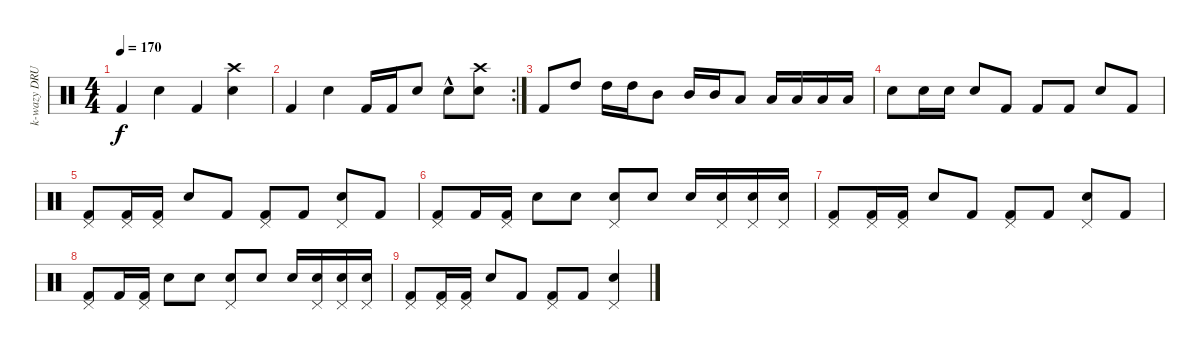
\track ("k-wazy DRUMZ" "k-wazy DRU") {instrument percussion}
\staff {score}
\articulation defaults
\ts (4 4)
\tempo 170
\clef neutral
\ks c "Kick (hit) 2".4{dy f} "Electric Snare (hit)".4 "Kick (hit) 2".4
("Crash high (hit)" "Electric Snare (hit)").4 |
\rc 2 "Kick (hit) 2".4 "Electric Snare (hit)".4 "Kick (hit) 2".16 "Kick (hit) 2".16 "Electric Snare (hit)".8 "Electric Snare (hit)"{hac}.8
("Crash high (hit)" "Electric Snare (hit)").8 |
"Kick (hit) 2".8 "High Tom (hit)".8 "High Tom (hit)".16 "High Tom (hit)".16 "Mid Tom (hit)".8 "Mid Tom (hit)".16 "Mid Tom (hit)".16 "Low Tom (hit)".8 "Low Tom (hit)".16 "Low Tom (hit)".16 "Low Tom (hit)".16 "Low Tom (hit)".16 |
"Snare (hit) 2".8 "Snare (hit) 2".16 "Snare (hit) 2".16 "Snare (hit) 2".8 "Kick (hit) 2".8 "Kick (hit) 2".8 "Kick (hit) 2".8 "Snare (hit) 2".8 "Kick (hit) 2".8 |
("Pedal Hi-Hat (hit)" "Kick (hit) 2").8 ("Pedal Hi-Hat (hit)" "Kick (hit) 2").16 ("Pedal Hi-Hat (hit)" "Kick (hit) 2").16 "Electric Snare (hit)".8 "Kick (hit) 2".8 ("Pedal Hi-Hat (hit)" "Kick (hit) 2").8 "Kick (hit) 2".8 ("Pedal Hi-Hat (hit)" "Electric Snare (hit)").8 "Kick (hit) 2".8 |
("Pedal Hi-Hat (hit)" "Kick (hit) 2").8 "Kick (hit) 2".16 ("Pedal Hi-Hat (hit)" "Kick (hit) 2").16 "Electric Snare (hit)".8 "Electric Snare (hit)".8 ("Pedal Hi-Hat (hit)" "Electric Snare (hit)").8 "Electric Snare (hit)".8 "Electric Snare (hit)".16 ("Pedal Hi-Hat (hit)" "Electric Snare (hit)").16 ("Pedal Hi-Hat (hit)" "Electric Snare (hit)").16 ("Pedal Hi-Hat (hit)" "Electric Snare (hit)").16 |
("Pedal Hi-Hat (hit)" "Kick (hit) 2").8 ("Pedal Hi-Hat (hit)" "Kick (hit) 2").16 ("Pedal Hi-Hat (hit)" "Kick (hit) 2").16 "Electric Snare (hit)".8 "Kick (hit) 2".8 ("Pedal Hi-Hat (hit)" "Kick (hit) 2").8 "Kick (hit) 2".8 ("Pedal Hi-Hat (hit)" "Electric Snare (hit)").8 "Kick (hit) 2".8 |
("Pedal Hi-Hat (hit)" "Kick (hit) 2").8 "Kick (hit) 2".16 ("Pedal Hi-Hat (hit)" "Kick (hit) 2").16 "Electric Snare (hit)".8 "Electric Snare (hit)".8 ("Pedal Hi-Hat (hit)" "Electric Snare (hit)").8 "Electric Snare (hit)".8 "Electric Snare (hit)".16 ("Pedal Hi-Hat (hit)" "Electric Snare (hit)").16 ("Pedal Hi-Hat (hit)" "Electric Snare (hit)").16 ("Pedal Hi-Hat (hit)" "Electric Snare (hit)").16 |
("Pedal Hi-Hat (hit)" "Kick (hit) 2").8 ("Pedal Hi-Hat (hit)" "Kick (hit) 2").16 ("Pedal Hi-Hat (hit)" "Kick (hit) 2").16 "Electric Snare (hit)".8 "Kick (hit) 2".8 ("Pedal Hi-Hat (hit)" "Kick (hit) 2").8 "Kick (hit) 2".8 ("Pedal Hi-Hat (hit)" "Electric Snare (hit)").4
